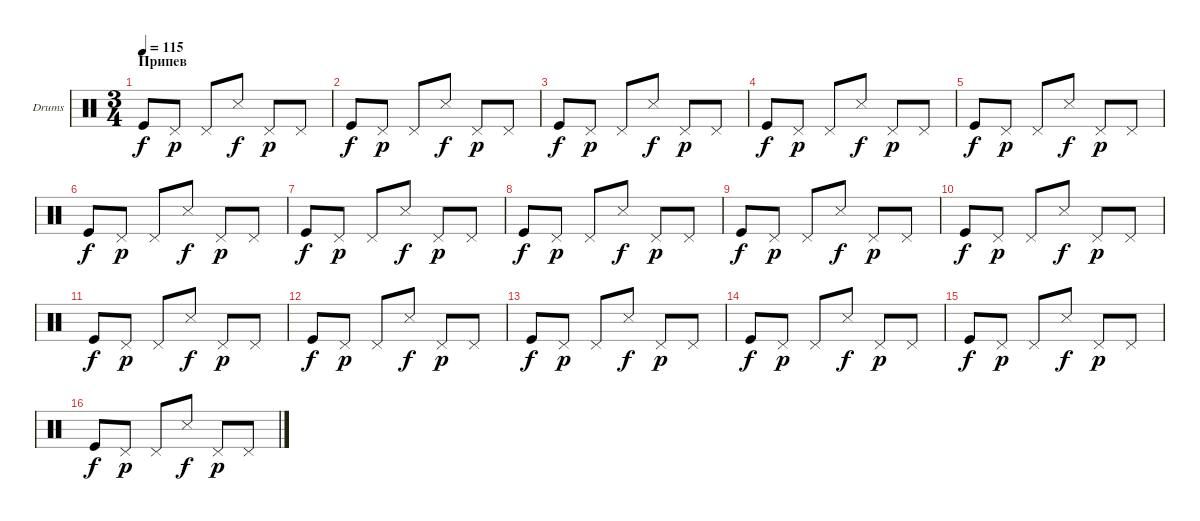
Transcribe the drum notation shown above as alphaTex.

\defaultSystemsLayout 4
\bracketExtendMode groupsimilarinstruments
\firstSystemTrackNameOrientation horizontal
\otherSystemsTrackNameOrientation horizontal
\track ("Е. Кулаков" "Drums") {instrument percussion}
\staff {score}
\articulation defaults
\ts (3 4)
\section ("" "Припев")
\tempo 115
\clef neutral
\ks c "Kick (hit)".8{dy f} "Pedal Hi-Hat (hit)".8{dy p} "Pedal Hi-Hat (hit)".8 "Snare (side stick) 3".8{dy f} "Pedal Hi-Hat (hit)".8{dy p} "Pedal Hi-Hat (hit)".8
|
"Kick (hit)".8{dy f} "Pedal Hi-Hat (hit)".8{dy p} "Pedal Hi-Hat (hit)".8 "Snare (side stick) 3".8{dy f} "Pedal Hi-Hat (hit)".8{dy p} "Pedal Hi-Hat (hit)".8 |
"Kick (hit)".8{dy f} "Pedal Hi-Hat (hit)".8{dy p} "Pedal Hi-Hat (hit)".8 "Snare (side stick) 3".8{dy f} "Pedal Hi-Hat (hit)".8{dy p} "Pedal Hi-Hat (hit)".8 |
"Kick (hit)".8{dy f} "Pedal Hi-Hat (hit)".8{dy p} "Pedal Hi-Hat (hit)".8 "Snare (side stick) 3".8{dy f} "Pedal Hi-Hat (hit)".8{dy p} "Pedal Hi-Hat (hit)".8 |
"Kick (hit)".8{dy f} "Pedal Hi-Hat (hit)".8{dy p} "Pedal Hi-Hat (hit)".8 "Snare (side stick) 3".8{dy f} "Pedal Hi-Hat (hit)".8{dy p} "Pedal Hi-Hat (hit)".8 |
"Kick (hit)".8{dy f} "Pedal Hi-Hat (hit)".8{dy p} "Pedal Hi-Hat (hit)".8 "Snare (side stick) 3".8{dy f} "Pedal Hi-Hat (hit)".8{dy p} "Pedal Hi-Hat (hit)".8 |
"Kick (hit)".8{dy f} "Pedal Hi-Hat (hit)".8{dy p} "Pedal Hi-Hat (hit)".8 "Snare (side stick) 3".8{dy f} "Pedal Hi-Hat (hit)".8{dy p} "Pedal Hi-Hat (hit)".8 |
"Kick (hit)".8{dy f} "Pedal Hi-Hat (hit)".8{dy p} "Pedal Hi-Hat (hit)".8 "Snare (side stick) 3".8{dy f} "Pedal Hi-Hat (hit)".8{dy p} "Pedal Hi-Hat (hit)".8 |
"Kick (hit)".8{dy f} "Pedal Hi-Hat (hit)".8{dy p} "Pedal Hi-Hat (hit)".8 "Snare (side stick) 3".8{dy f} "Pedal Hi-Hat (hit)".8{dy p} "Pedal Hi-Hat (hit)".8 |
"Kick (hit)".8{dy f} "Pedal Hi-Hat (hit)".8{dy p} "Pedal Hi-Hat (hit)".8 "Snare (side stick) 3".8{dy f} "Pedal Hi-Hat (hit)".8{dy p} "Pedal Hi-Hat (hit)".8 |
"Kick (hit)".8{dy f} "Pedal Hi-Hat (hit)".8{dy p} "Pedal Hi-Hat (hit)".8 "Snare (side stick) 3".8{dy f} "Pedal Hi-Hat (hit)".8{dy p} "Pedal Hi-Hat (hit)".8 |
"Kick (hit)".8{dy f} "Pedal Hi-Hat (hit)".8{dy p} "Pedal Hi-Hat (hit)".8 "Snare (side stick) 3".8{dy f} "Pedal Hi-Hat (hit)".8{dy p} "Pedal Hi-Hat (hit)".8 |
"Kick (hit)".8{dy f} "Pedal Hi-Hat (hit)".8{dy p} "Pedal Hi-Hat (hit)".8 "Snare (side stick) 3".8{dy f} "Pedal Hi-Hat (hit)".8{dy p} "Pedal Hi-Hat (hit)".8 |
"Kick (hit)".8{dy f} "Pedal Hi-Hat (hit)".8{dy p} "Pedal Hi-Hat (hit)".8 "Snare (side stick) 3".8{dy f} "Pedal Hi-Hat (hit)".8{dy p} "Pedal Hi-Hat (hit)".8 |
"Kick (hit)".8{dy f} "Pedal Hi-Hat (hit)".8{dy p} "Pedal Hi-Hat (hit)".8 "Snare (side stick) 3".8{dy f} "Pedal Hi-Hat (hit)".8{dy p} "Pedal Hi-Hat (hit)".8 |
"Kick (hit)".8{dy f} "Pedal Hi-Hat (hit)".8{dy p} "Pedal Hi-Hat (hit)".8 "Snare (side stick) 3".8{dy f} "Pedal Hi-Hat (hit)".8{dy p} "Pedal Hi-Hat (hit)".8
